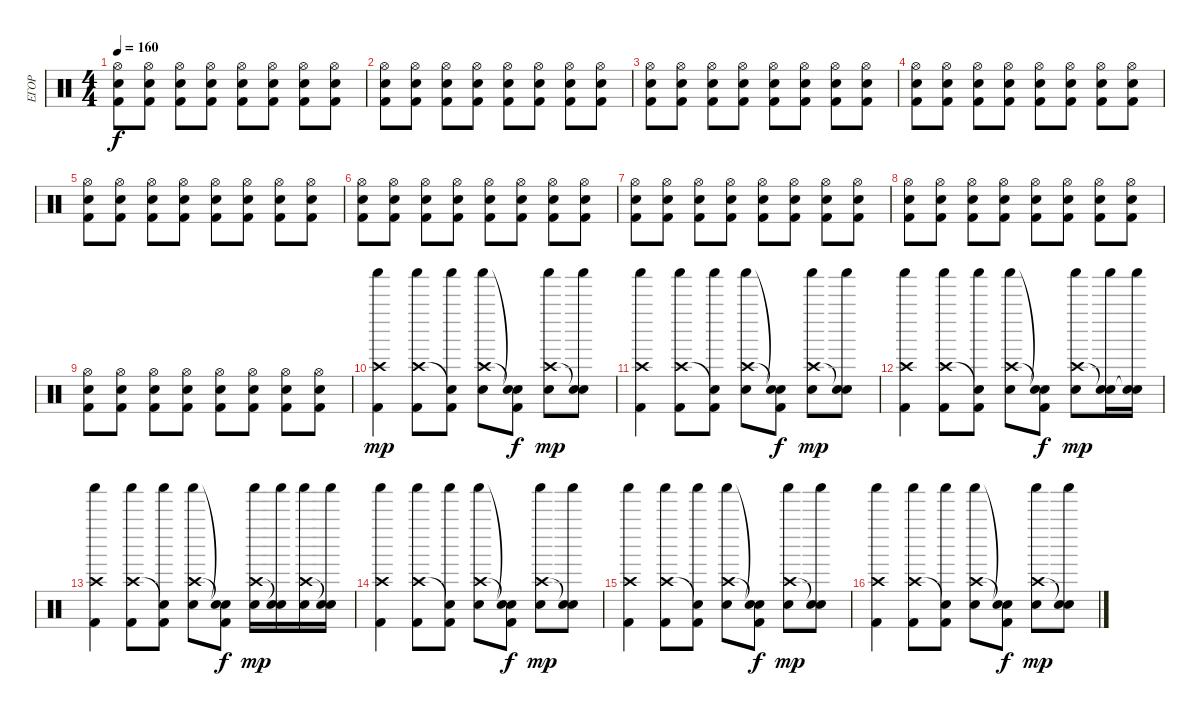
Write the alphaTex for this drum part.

\track ("ЕГОР" "ЕГОР") {instrument percussion}
\staff {score}
\articulation defaults
\ts (4 4)
\tempo 160
\clef neutral
\ks c
("Hi-Hat (open)" "Electric Snare (hit)" "Kick (hit) 2").8{dy f} ("Hi-Hat (open)" "Electric Snare (hit)" "Kick (hit) 2").8 ("Hi-Hat (open)" "Electric Snare (hit)" "Kick (hit) 2").8 ("Hi-Hat (open)" "Electric Snare (hit)" "Kick (hit) 2").8 ("Hi-Hat (open)" "Electric Snare (hit)" "Kick (hit) 2").8 ("Hi-Hat (open)" "Electric Snare (hit)" "Kick (hit) 2").8 ("Hi-Hat (open)" "Electric Snare (hit)" "Kick (hit) 2").8 ("Hi-Hat (open)" "Electric Snare (hit)" "Kick (hit) 2").8 |
("Hi-Hat (open)" "Electric Snare (hit)" "Kick (hit) 2").8 ("Hi-Hat (open)" "Electric Snare (hit)" "Kick (hit) 2").8 ("Hi-Hat (open)" "Electric Snare (hit)" "Kick (hit) 2").8 ("Hi-Hat (open)" "Electric Snare (hit)" "Kick (hit) 2").8 ("Hi-Hat (open)" "Electric Snare (hit)" "Kick (hit) 2").8 ("Hi-Hat (open)" "Electric Snare (hit)" "Kick (hit) 2").8 ("Hi-Hat (open)" "Electric Snare (hit)" "Kick (hit) 2").8 ("Hi-Hat (open)" "Electric Snare (hit)" "Kick (hit) 2").8 |
("Hi-Hat (open)" "Electric Snare (hit)" "Kick (hit) 2").8 ("Hi-Hat (open)" "Electric Snare (hit)" "Kick (hit) 2").8 ("Hi-Hat (open)" "Electric Snare (hit)" "Kick (hit) 2").8 ("Hi-Hat (open)" "Electric Snare (hit)" "Kick (hit) 2").8 ("Hi-Hat (open)" "Electric Snare (hit)" "Kick (hit) 2").8 ("Hi-Hat (open)" "Electric Snare (hit)" "Kick (hit) 2").8 ("Hi-Hat (open)" "Electric Snare (hit)" "Kick (hit) 2").8 ("Hi-Hat (open)" "Electric Snare (hit)" "Kick (hit) 2").8 |
("Hi-Hat (open)" "Electric Snare (hit)" "Kick (hit) 2").8 ("Hi-Hat (open)" "Electric Snare (hit)" "Kick (hit) 2").8 ("Hi-Hat (open)" "Electric Snare (hit)" "Kick (hit) 2").8 ("Hi-Hat (open)" "Electric Snare (hit)" "Kick (hit) 2").8 ("Hi-Hat (open)" "Electric Snare (hit)" "Kick (hit) 2").8 ("Hi-Hat (open)" "Electric Snare (hit)" "Kick (hit) 2").8 ("Hi-Hat (open)" "Electric Snare (hit)" "Kick (hit) 2").8 ("Hi-Hat (open)" "Electric Snare (hit)" "Kick (hit) 2").8 |
("Hi-Hat (open)" "Electric Snare (hit)" "Kick (hit) 2").8 ("Hi-Hat (open)" "Electric Snare (hit)" "Kick (hit) 2").8 ("Hi-Hat (open)" "Electric Snare (hit)" "Kick (hit) 2").8 ("Hi-Hat (open)" "Electric Snare (hit)" "Kick (hit) 2").8 ("Hi-Hat (open)" "Electric Snare (hit)" "Kick (hit) 2").8 ("Hi-Hat (open)" "Electric Snare (hit)" "Kick (hit) 2").8 ("Hi-Hat (open)" "Electric Snare (hit)" "Kick (hit) 2").8 ("Hi-Hat (open)" "Electric Snare (hit)" "Kick (hit) 2").8 |
("Hi-Hat (open)" "Electric Snare (hit)" "Kick (hit) 2").8 ("Hi-Hat (open)" "Electric Snare (hit)" "Kick (hit) 2").8 ("Hi-Hat (open)" "Electric Snare (hit)" "Kick (hit) 2").8 ("Hi-Hat (open)" "Electric Snare (hit)" "Kick (hit) 2").8 ("Hi-Hat (open)" "Electric Snare (hit)" "Kick (hit) 2").8 ("Hi-Hat (open)" "Electric Snare (hit)" "Kick (hit) 2").8 ("Hi-Hat (open)" "Electric Snare (hit)" "Kick (hit) 2").8 ("Hi-Hat (open)" "Electric Snare (hit)" "Kick (hit) 2").8 |
("Hi-Hat (open)" "Electric Snare (hit)" "Kick (hit) 2").8 ("Hi-Hat (open)" "Electric Snare (hit)" "Kick (hit) 2").8 ("Hi-Hat (open)" "Electric Snare (hit)" "Kick (hit) 2").8 ("Hi-Hat (open)" "Electric Snare (hit)" "Kick (hit) 2").8 ("Hi-Hat (open)" "Electric Snare (hit)" "Kick (hit) 2").8 ("Hi-Hat (open)" "Electric Snare (hit)" "Kick (hit) 2").8 ("Hi-Hat (open)" "Electric Snare (hit)" "Kick (hit) 2").8 ("Hi-Hat (open)" "Electric Snare (hit)" "Kick (hit) 2").8 |
("Hi-Hat (open)" "Electric Snare (hit)" "Kick (hit) 2").8 ("Hi-Hat (open)" "Electric Snare (hit)" "Kick (hit) 2").8 ("Hi-Hat (open)" "Electric Snare (hit)" "Kick (hit) 2").8 ("Hi-Hat (open)" "Electric Snare (hit)" "Kick (hit) 2").8 ("Hi-Hat (open)" "Electric Snare (hit)" "Kick (hit) 2").8 ("Hi-Hat (open)" "Electric Snare (hit)" "Kick (hit) 2").8 ("Hi-Hat (open)" "Electric Snare (hit)" "Kick (hit) 2").8 ("Hi-Hat (open)" "Electric Snare (hit)" "Kick (hit) 2").8 |
("Hi-Hat (open)" "Electric Snare (hit)" "Kick (hit) 2").8 ("Hi-Hat (open)" "Electric Snare (hit)" "Kick (hit) 2").8 ("Hi-Hat (open)" "Electric Snare (hit)" "Kick (hit) 2").8 ("Hi-Hat (open)" "Electric Snare (hit)" "Kick (hit) 2").8 ("Hi-Hat (open)" "Electric Snare (hit)" "Kick (hit) 2").8 ("Hi-Hat (open)" "Electric Snare (hit)" "Kick (hit) 2").8 ("Hi-Hat (open)" "Electric Snare (hit)" "Kick (hit) 2").8 ("Hi-Hat (open)" "Electric Snare (hit)" "Kick (hit) 2").8 |
("Crash high (hit)" "Shaker (hit)" "Kick (hit) 2").4{dy mp} ("Crash high (hit)" "Shaker (hit)" "Kick (hit) 2").8 ("Snare (hit)"{t} "Shaker (hit)" "Kick (hit) 2").8 ("Crash high (hit)" "Shaker (hit)" "Electric Snare (hit)").8 ("Snare (hit)"{t} "Snare (hit)"{t} "Kick (hit) 2").8{dy f} ("Crash high (hit)" "Shaker (hit)" "Electric Snare (hit)").8{dy mp} ("Snare (hit)"{t} "Shaker (hit)" "Electric Snare (hit)").8 |
("Crash high (hit)" "Shaker (hit)" "Kick (hit) 2").4 ("Crash high (hit)" "Shaker (hit)" "Kick (hit) 2").8 ("Snare (hit)"{t} "Shaker (hit)" "Kick (hit) 2").8 ("Crash high (hit)" "Shaker (hit)" "Electric Snare (hit)").8 ("Snare (hit)"{t} "Snare (hit)"{t} "Kick (hit) 2").8{dy f} ("Crash high (hit)" "Shaker (hit)" "Electric Snare (hit)").8{dy mp} ("Snare (hit)"{t} "Shaker (hit)" "Electric Snare (hit)").8 |
("Crash high (hit)" "Shaker (hit)" "Kick (hit) 2").4 ("Crash high (hit)" "Shaker (hit)" "Kick (hit) 2").8 ("Snare (hit)"{t} "Shaker (hit)" "Kick (hit) 2").8 ("Crash high (hit)" "Shaker (hit)" "Electric Snare (hit)").8 ("Snare (hit)"{t} "Snare (hit)"{t} "Kick (hit) 2").8{dy f} ("Crash high (hit)" "Shaker (hit)" "Electric Snare (hit)").8{dy mp} ("Snare (hit)"{t} "Shaker (hit)" "Electric Snare (hit)").16 ("Snare (hit)"{t} "Shaker (hit)" "Electric Snare (hit)").16 |
("Crash high (hit)" "Shaker (hit)" "Kick (hit) 2").4 ("Crash high (hit)" "Shaker (hit)" "Kick (hit) 2").8 ("Snare (hit)"{t} "Shaker (hit)" "Kick (hit) 2").8 ("Crash high (hit)" "Shaker (hit)" "Electric Snare (hit)").8 ("Snare (hit)"{t} "Snare (hit)"{t} "Kick (hit) 2").8{dy f} ("Crash high (hit)" "Shaker (hit)" "Electric Snare (hit)").16{dy mp} ("Snare (hit)"{t} "Shaker (hit)" "Electric Snare (hit)").16 ("Crash high (hit)" "Shaker (hit)" "Electric Snare (hit)").16 ("Snare (hit)"{t} "Shaker (hit)" "Electric Snare (hit)").16 |
("Crash high (hit)" "Shaker (hit)" "Kick (hit) 2").4 ("Crash high (hit)" "Shaker (hit)" "Kick (hit) 2").8 ("Snare (hit)"{t} "Shaker (hit)" "Kick (hit) 2").8 ("Crash high (hit)" "Shaker (hit)" "Electric Snare (hit)").8 ("Snare (hit)"{t} "Snare (hit)"{t} "Kick (hit) 2").8{dy f} ("Crash high (hit)" "Shaker (hit)" "Electric Snare (hit)").8{dy mp} ("Snare (hit)"{t} "Shaker (hit)" "Electric Snare (hit)").8 |
("Crash high (hit)" "Shaker (hit)" "Kick (hit) 2").4 ("Crash high (hit)" "Shaker (hit)" "Kick (hit) 2").8 ("Snare (hit)"{t} "Shaker (hit)" "Kick (hit) 2").8 ("Crash high (hit)" "Shaker (hit)" "Electric Snare (hit)").8 ("Snare (hit)"{t} "Snare (hit)"{t} "Kick (hit) 2").8{dy f} ("Crash high (hit)" "Shaker (hit)" "Electric Snare (hit)").8{dy mp} ("Snare (hit)"{t} "Shaker (hit)" "Electric Snare (hit)").8 |
("Crash high (hit)" "Shaker (hit)" "Kick (hit) 2").4 ("Crash high (hit)" "Shaker (hit)" "Kick (hit) 2").8 ("Snare (hit)"{t} "Shaker (hit)" "Kick (hit) 2").8 ("Crash high (hit)" "Shaker (hit)" "Electric Snare (hit)").8 ("Snare (hit)"{t} "Snare (hit)"{t} "Kick (hit) 2").8{dy f} ("Crash high (hit)" "Shaker (hit)" "Electric Snare (hit)").8{dy mp} ("Snare (hit)"{t} "Shaker (hit)" "Electric Snare (hit)").8
